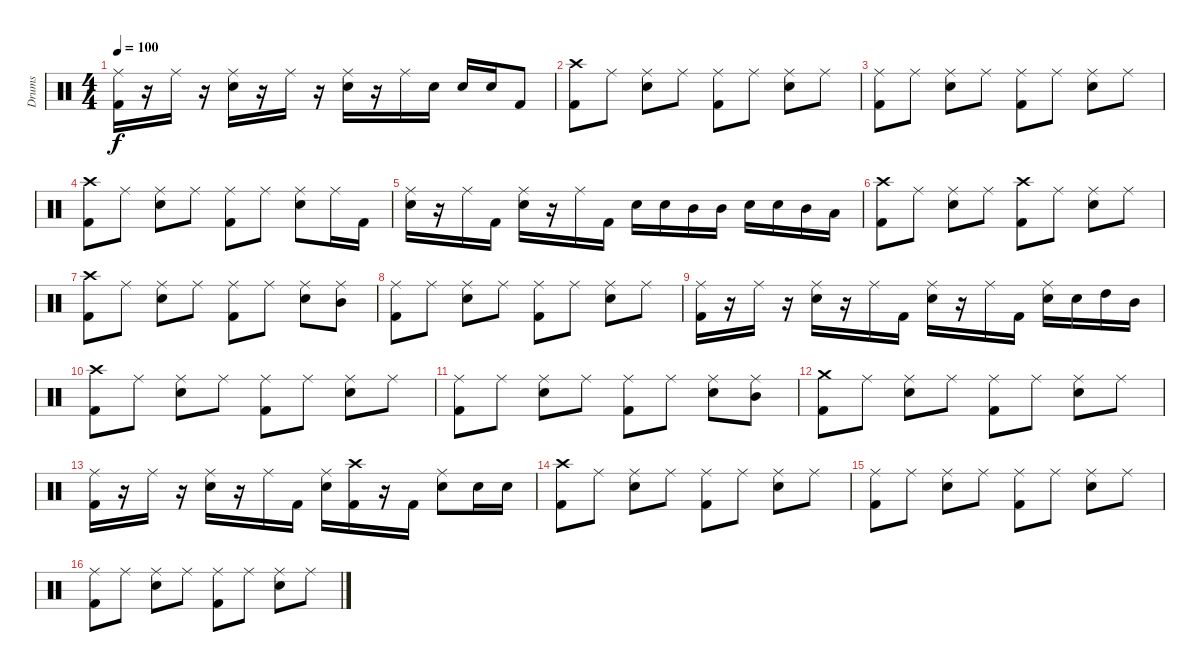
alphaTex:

\track ("Drums" "Drums") {instrument percussion}
\staff {score}
\articulation defaults
\ts (4 4)
\tempo 100
\clef neutral
\ks c
("Ride (middle)" "Kick (hit) 2").16{dy f} r.16 "Ride (middle)".16 r.16 ("Ride (middle)" "Snare (hit) 2").16 r.16 "Ride (middle)".16 r.16 ("Ride (middle)" "Snare (hit) 2").16 r.16 "Ride (middle)".16 "Snare (hit) 2".16 "Snare (hit) 2".16 "Snare (hit) 2".16 "Kick (hit) 2".8 |
("Crash high (hit)" "Kick (hit) 2").8 "Ride (middle)".8 ("Ride (middle)" "Snare (hit) 2").8 "Ride (middle)".8 ("Ride (middle)" "Kick (hit) 2").8 "Ride (middle)".8 ("Ride (middle)" "Snare (hit) 2").8 "Ride (middle)".8 |
("Ride (middle)" "Kick (hit) 2").8 "Ride (middle)".8 ("Ride (middle)" "Snare (hit) 2").8 "Ride (middle)".8 ("Ride (middle)" "Kick (hit) 2").8 "Ride (middle)".8 ("Ride (middle)" "Snare (hit) 2").8 "Ride (middle)".8 |
("Crash high (hit)" "Kick (hit) 2").8 "Ride (middle)".8 ("Ride (middle)" "Snare (hit) 2").8 "Ride (middle)".8 ("Ride (middle)" "Kick (hit) 2").8 "Ride (middle)".8 ("Ride (middle)" "Snare (hit) 2").8 "Ride (middle)".16 "Kick (hit) 2".16 |
("Ride (middle)" "Snare (hit) 2").16 r.16 "Ride (middle)".16 "Kick (hit) 2".16 ("Ride (middle)" "Snare (hit) 2").16 r.16 "Ride (middle)".16 "Kick (hit) 2".16 "Snare (hit) 2".16 "Snare (hit) 2".16 "Mid Tom (hit)".16 "Mid Tom (hit)".16 "Snare (hit) 2".16 "Snare (hit) 2".16 "Mid Tom (hit)".16 "Low Tom (hit)".16 |
("Crash high (hit)" "Kick (hit) 2").8 "Ride (middle)".8 ("Ride (middle)" "Snare (hit) 2").8 "Ride (middle)".8 ("Crash high (hit)" "Kick (hit) 2").8 "Ride (middle)".8 ("Ride (middle)" "Snare (hit) 2").8 "Ride (middle)".8 |
("Crash high (hit)" "Kick (hit) 2").8 "Ride (middle)".8 ("Ride (middle)" "Snare (hit) 2").8 "Ride (middle)".8 ("Ride (middle)" "Kick (hit) 2").8 "Ride (middle)".8 ("Ride (middle)" "Snare (hit) 2").8 ("Ride (middle)" "Mid Tom (hit)").8 |
("Ride (middle)" "Kick (hit) 2").8 "Ride (middle)".8 ("Ride (middle)" "Snare (hit) 2").8 "Ride (middle)".8 ("Ride (middle)" "Kick (hit) 2").8 "Ride (middle)".8 ("Ride (middle)" "Snare (hit) 2").8 "Ride (middle)".8 |
("Ride (middle)" "Kick (hit) 2").16 r.16 "Ride (middle)".16 r.16 ("Ride (middle)" "Snare (hit) 2").16 r.16 "Ride (middle)".16 "Kick (hit) 2".16 ("Ride (middle)" "Snare (hit) 2").16 r.16 "Ride (middle)".16 "Kick (hit) 2".16 ("Ride (middle)" "Snare (hit) 2").16 "Snare (hit) 2".16 "High Tom (hit)".16 "Mid Tom (hit)".16 |
("Crash high (hit)" "Kick (hit) 2").8 "Ride (middle)".8 ("Ride (middle)" "Snare (hit) 2").8 "Ride (middle)".8 ("Ride (middle)" "Kick (hit) 2").8 "Ride (middle)".8 ("Ride (middle)" "Snare (hit) 2").8 "Ride (middle)".8 |
("Ride (middle)" "Kick (hit) 2").8 "Ride (middle)".8 ("Ride (middle)" "Snare (hit) 2").8 "Ride (middle)".8 ("Ride (middle)" "Kick (hit) 2").8 "Ride (middle)".8 ("Ride (middle)" "Snare (hit) 2").8 ("Ride (middle)" "Mid Tom (hit)").8 |
("Crash medium (hit)" "Kick (hit) 2").8 "Ride (middle)".8 ("Ride (middle)" "Snare (hit) 2").8 "Ride (middle)".8 ("Ride (middle)" "Kick (hit) 2").8 "Ride (middle)".8 ("Ride (middle)" "Snare (hit) 2").8 "Ride (middle)".8 |
("Ride (middle)" "Kick (hit) 2").16 r.16 "Ride (middle)".16 r.16 ("Ride (middle)" "Snare (hit) 2").16 r.16 "Ride (middle)".16 "Kick (hit) 2".16 ("Ride (middle)" "Snare (hit) 2").16 ("Crash high (hit)" "Kick (hit) 2").16 r.16 "Kick (hit) 2".16 ("Ride (middle)" "Snare (hit) 2").8 "Snare (hit) 2".16 "Snare (hit) 2".16 |
("Crash high (hit)" "Kick (hit) 2").8 "Ride (middle)".8 ("Ride (middle)" "Snare (hit) 2").8 "Ride (middle)".8 ("Ride (middle)" "Kick (hit) 2").8 "Ride (middle)".8 ("Ride (middle)" "Snare (hit) 2").8 "Ride (middle)".8 |
("Ride (middle)" "Kick (hit) 2").8 "Ride (middle)".8 ("Ride (middle)" "Snare (hit) 2").8 "Ride (middle)".8 ("Ride (middle)" "Kick (hit) 2").8 "Ride (middle)".8 ("Ride (middle)" "Snare (hit) 2").8 "Ride (middle)".8 |
("Ride (middle)" "Kick (hit) 2").8 "Ride (middle)".8 ("Ride (middle)" "Snare (hit) 2").8 "Ride (middle)".8 ("Ride (middle)" "Kick (hit) 2").8 "Ride (middle)".8 ("Ride (middle)" "Snare (hit) 2").8 "Ride (middle)".8
